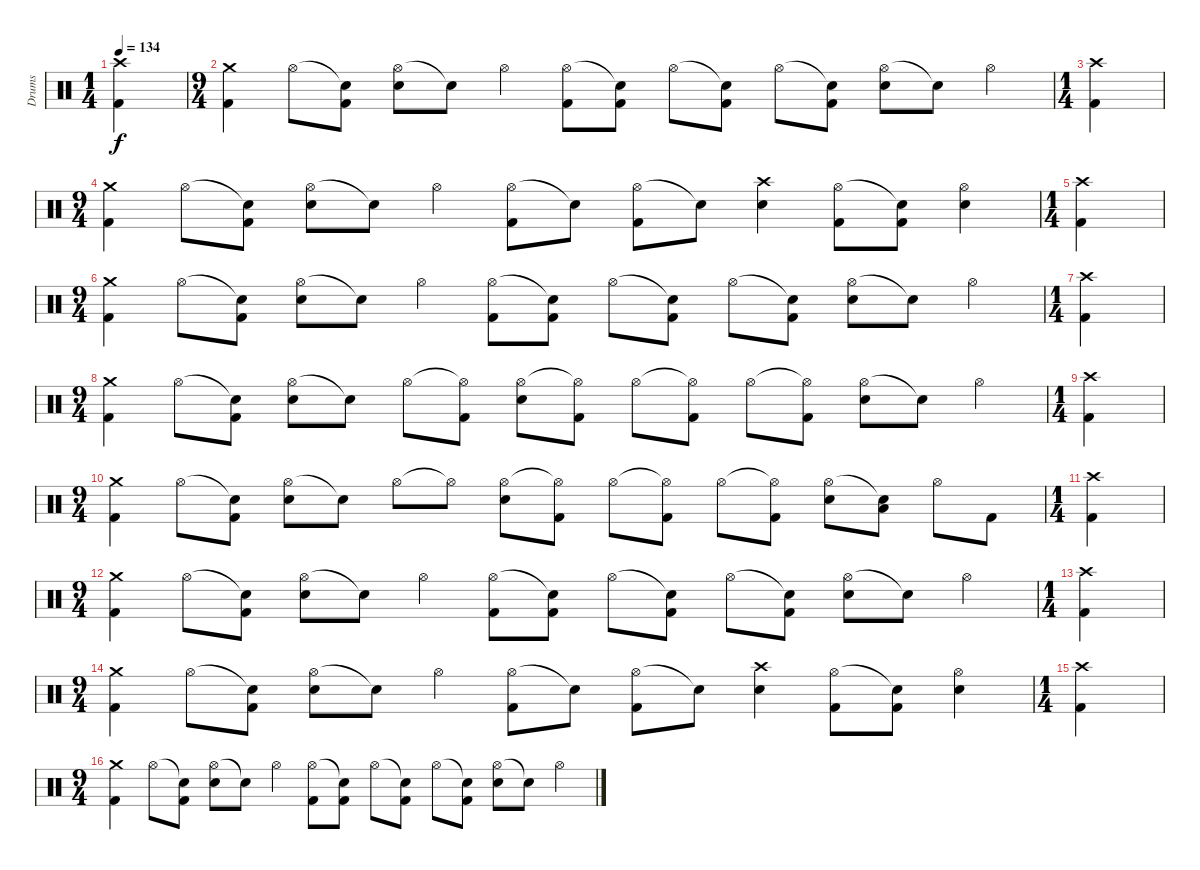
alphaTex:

\track ("Drums" "Drums") {instrument percussion}
\staff {score}
\articulation defaults
\ts (1 4)
\tempo 134
\clef neutral
\ks c
("Crash high (hit)" "Kick (hit) 2").4{dy f} |
\ts (9 4)
("Crash medium (hit)" "Kick (hit) 2").4 "Hi-Hat (open)".8 ("Snare (hit)"{t} "Kick (hit) 2").8 ("Hi-Hat (open)" "Snare (hit) 2").8 "Snare (hit)"{t}.8 "Hi-Hat (open)".4 ("Hi-Hat (open)" "Kick (hit) 2").8 ("Snare (hit)"{t} "Kick (hit) 2").8 "Hi-Hat (open)".8 ("Snare (hit)"{t} "Kick (hit) 2").8 "Hi-Hat (open)".8 ("Snare (hit)"{t} "Kick (hit) 2").8 ("Hi-Hat (open)" "Snare (hit) 2").8 "Snare (hit)"{t}.8 "Hi-Hat (open)".4 |
\ts (1 4)
("Crash high (hit)" "Kick (hit) 2").4 |
\ts (9 4)
("Crash medium (hit)" "Kick (hit) 2").4 "Hi-Hat (open)".8 ("Snare (hit)"{t} "Kick (hit) 2").8 ("Hi-Hat (open)" "Snare (hit) 2").8 "Snare (hit)"{t}.8 "Hi-Hat (open)".4 ("Hi-Hat (open)" "Kick (hit) 2").8 "Snare (hit)"{t}.8 ("Hi-Hat (open)" "Kick (hit) 2").8 "Snare (hit)"{t}.8 ("Crash high (hit)" "Snare (hit) 2").4 ("Hi-Hat (open)" "Kick (hit) 2").8 ("Snare (hit)"{t} "Kick (hit) 2").8 ("Hi-Hat (open)" "Snare (hit) 2").4 |
\ts (1 4)
("Crash high (hit)" "Kick (hit) 2").4 |
\ts (9 4)
("Crash medium (hit)" "Kick (hit) 2").4 "Hi-Hat (open)".8 ("Snare (hit)"{t} "Kick (hit) 2").8 ("Hi-Hat (open)" "Snare (hit) 2").8 "Snare (hit)"{t}.8 "Hi-Hat (open)".4 ("Hi-Hat (open)" "Kick (hit) 2").8 ("Snare (hit)"{t} "Kick (hit) 2").8 "Hi-Hat (open)".8 ("Snare (hit)"{t} "Kick (hit) 2").8 "Hi-Hat (open)".8 ("Snare (hit)"{t} "Kick (hit) 2").8 ("Hi-Hat (open)" "Snare (hit) 2").8 "Snare (hit)"{t}.8 "Hi-Hat (open)".4 |
\ts (1 4)
("Crash high (hit)" "Kick (hit) 2").4 |
\ts (9 4)
("Crash medium (hit)" "Kick (hit) 2").4 "Hi-Hat (open)".8 ("Snare (hit)"{t} "Kick (hit) 2").8 ("Hi-Hat (open)" "Snare (hit) 2").8 "Snare (hit)"{t}.8 "Hi-Hat (open)".8 ("Hi-Hat (open)"{t} "Kick (hit) 2").8 ("Hi-Hat (open)" "Snare (hit) 2").8 ("Hi-Hat (open)"{t} "Kick (hit) 2").8 "Hi-Hat (open)".8 ("Hi-Hat (open)"{t} "Kick (hit) 2").8 "Hi-Hat (open)".8 ("Hi-Hat (open)"{t} "Kick (hit) 2").8 ("Hi-Hat (open)" "Snare (hit) 2").8 "Snare (hit)"{t}.8 "Hi-Hat (open)".4 |
\ts (1 4)
("Crash high (hit)" "Kick (hit) 2").4 |
\ts (9 4)
("Crash medium (hit)" "Kick (hit) 2").4 "Hi-Hat (open)".8 ("Snare (hit)"{t} "Kick (hit) 2").8 ("Hi-Hat (open)" "Snare (hit) 2").8 "Snare (hit)"{t}.8 "Hi-Hat (open)".8 "Hi-Hat (open)"{t}.8 ("Hi-Hat (open)" "Snare (hit) 2").8 ("Hi-Hat (open)"{t} "Kick (hit) 2").8 "Hi-Hat (open)".8 ("Hi-Hat (open)"{t} "Kick (hit) 2").8 "Hi-Hat (open)".8 ("Hi-Hat (open)"{t} "Kick (hit) 2").8 ("Hi-Hat (open)" "Snare (hit) 2").8 ("Snare (hit)"{t} "Low Tom (hit)").8 "Hi-Hat (open)".8 "Kick (hit) 2".8 |
\ts (1 4)
("Crash high (hit)" "Kick (hit) 2").4 |
\ts (9 4)
("Crash medium (hit)" "Kick (hit) 2").4 "Hi-Hat (open)".8 ("Snare (hit)"{t} "Kick (hit) 2").8 ("Hi-Hat (open)" "Snare (hit) 2").8 "Snare (hit)"{t}.8 "Hi-Hat (open)".4 ("Hi-Hat (open)" "Kick (hit) 2").8 ("Snare (hit)"{t} "Kick (hit) 2").8 "Hi-Hat (open)".8 ("Snare (hit)"{t} "Kick (hit) 2").8 "Hi-Hat (open)".8 ("Snare (hit)"{t} "Kick (hit) 2").8 ("Hi-Hat (open)" "Snare (hit) 2").8 "Snare (hit)"{t}.8 "Hi-Hat (open)".4 |
\ts (1 4)
("Crash high (hit)" "Kick (hit) 2").4 |
\ts (9 4)
("Crash medium (hit)" "Kick (hit) 2").4 "Hi-Hat (open)".8 ("Snare (hit)"{t} "Kick (hit) 2").8 ("Hi-Hat (open)" "Snare (hit) 2").8 "Snare (hit)"{t}.8 "Hi-Hat (open)".4 ("Hi-Hat (open)" "Kick (hit) 2").8 "Snare (hit)"{t}.8 ("Hi-Hat (open)" "Kick (hit) 2").8 "Snare (hit)"{t}.8 ("Crash high (hit)" "Snare (hit) 2").4 ("Hi-Hat (open)" "Kick (hit) 2").8 ("Snare (hit)"{t} "Kick (hit) 2").8 ("Hi-Hat (open)" "Snare (hit) 2").4 |
\ts (1 4)
("Crash high (hit)" "Kick (hit) 2").4 |
\ts (9 4)
("Crash medium (hit)" "Kick (hit) 2").4 "Hi-Hat (open)".8 ("Snare (hit)"{t} "Kick (hit) 2").8 ("Hi-Hat (open)" "Snare (hit) 2").8 "Snare (hit)"{t}.8 "Hi-Hat (open)".4 ("Hi-Hat (open)" "Kick (hit) 2").8 ("Snare (hit)"{t} "Kick (hit) 2").8 "Hi-Hat (open)".8 ("Snare (hit)"{t} "Kick (hit) 2").8 "Hi-Hat (open)".8 ("Snare (hit)"{t} "Kick (hit) 2").8 ("Hi-Hat (open)" "Snare (hit) 2").8 "Snare (hit)"{t}.8 "Hi-Hat (open)".4
